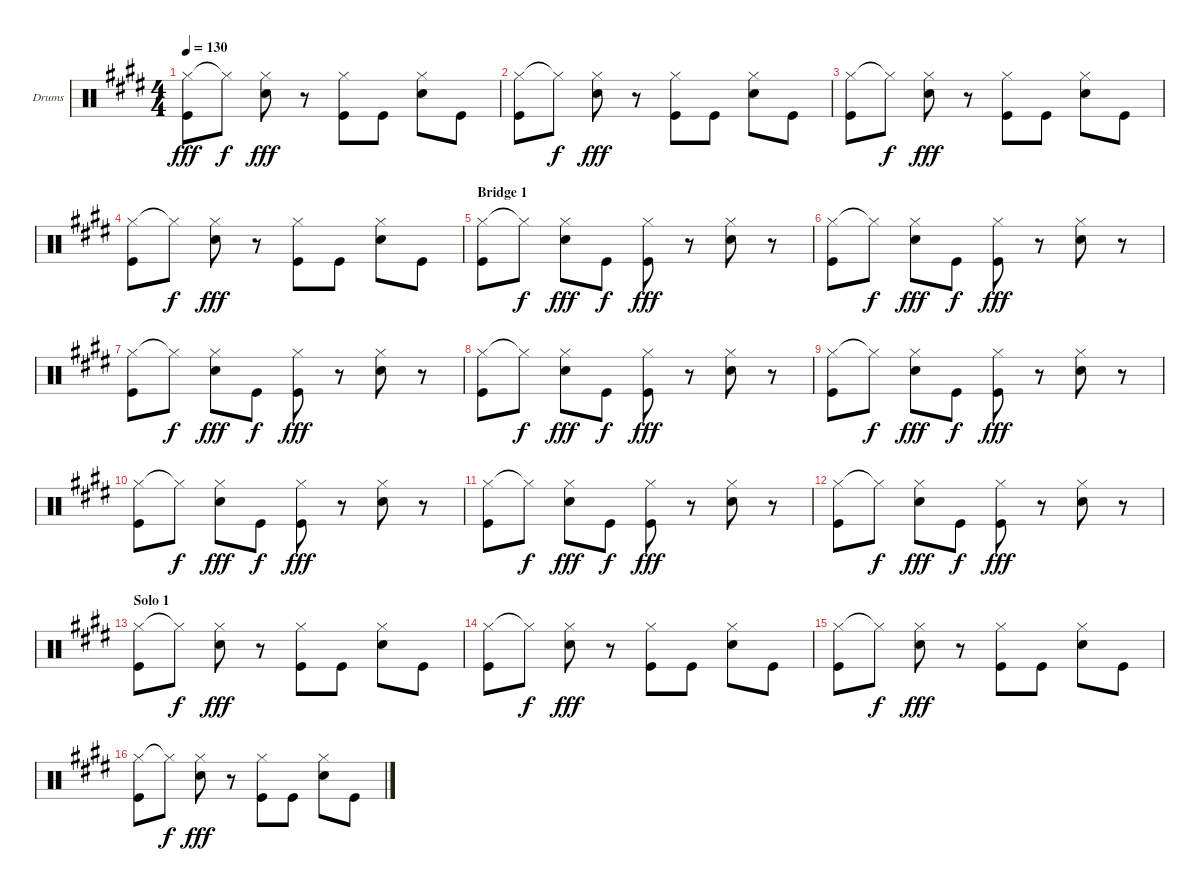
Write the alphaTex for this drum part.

\defaultSystemsLayout 4
\bracketExtendMode groupsimilarinstruments
\firstSystemTrackNameOrientation horizontal
\otherSystemsTrackNameOrientation horizontal
\chordDiagramsInScore
\track ("Drums" "Drums") {instrument percussion}
\staff {score}
\articulation defaults
\ts (4 4)
\tempo 130
\clef neutral
\scale
0.25
\ks e
("Hi-Hat (closed)" "Kick (hit)").8{dy fff} "Hi-Hat (closed)"{t}.8{dy f} ("Hi-Hat (closed)" "Snare (hit) 2").8{dy fff} r.8 ("Hi-Hat (closed)" "Kick (hit)").8 "Kick (hit)".8 ("Hi-Hat (closed)" "Snare (hit) 2").8 "Kick (hit)".8 |
\scale
0.25 ("Hi-Hat (closed)" "Kick (hit)").8 "Hi-Hat (closed)"{t}.8{dy f} ("Hi-Hat (closed)" "Snare (hit) 2").8{dy fff} r.8 ("Hi-Hat (closed)" "Kick (hit)").8 "Kick (hit)".8 ("Hi-Hat (closed)" "Snare (hit) 2").8 "Kick (hit)".8 |
\scale
0.25 ("Hi-Hat (closed)" "Kick (hit)").8 "Hi-Hat (closed)"{t}.8{dy f} ("Hi-Hat (closed)" "Snare (hit) 2").8{dy fff} r.8 ("Hi-Hat (closed)" "Kick (hit)").8 "Kick (hit)".8 ("Hi-Hat (closed)" "Snare (hit) 2").8 "Kick (hit)".8 |
\scale
0.25 ("Hi-Hat (closed)" "Kick (hit)").8 "Hi-Hat (closed)"{t}.8{dy f} ("Hi-Hat (closed)" "Snare (hit) 2").8{dy fff} r.8 ("Hi-Hat (closed)" "Kick (hit)").8 "Kick (hit)".8 ("Hi-Hat (closed)" "Snare (hit) 2").8 "Kick (hit)".8 |
\section ("" "Bridge 1")
\scale
0.25 ("Hi-Hat (closed)" "Kick (hit)").8 "Hi-Hat (closed)"{t}.8{dy f} ("Hi-Hat (closed)" "Snare (hit) 2").8{dy fff} "Kick (hit)".8{dy f} ("Hi-Hat (closed)" "Kick (hit)").8{dy fff} r.8 ("Hi-Hat (closed)" "Snare (hit) 2").8 r.8 |
\scale
0.25 ("Hi-Hat (closed)" "Kick (hit)").8 "Hi-Hat (closed)"{t}.8{dy f} ("Hi-Hat (closed)" "Snare (hit) 2").8{dy fff} "Kick (hit)".8{dy f} ("Hi-Hat (closed)" "Kick (hit)").8{dy fff} r.8 ("Hi-Hat (closed)" "Snare (hit) 2").8 r.8 |
\scale
0.25 ("Hi-Hat (closed)" "Kick (hit)").8 "Hi-Hat (closed)"{t}.8{dy f} ("Hi-Hat (closed)" "Snare (hit) 2").8{dy fff} "Kick (hit)".8{dy f} ("Hi-Hat (closed)" "Kick (hit)").8{dy fff} r.8 ("Hi-Hat (closed)" "Snare (hit) 2").8 r.8 |
\scale
0.25 ("Hi-Hat (closed)" "Kick (hit)").8 "Hi-Hat (closed)"{t}.8{dy f} ("Hi-Hat (closed)" "Snare (hit) 2").8{dy fff} "Kick (hit)".8{dy f} ("Hi-Hat (closed)" "Kick (hit)").8{dy fff} r.8 ("Hi-Hat (closed)" "Snare (hit) 2").8 r.8 |
\scale
0.25 ("Hi-Hat (closed)" "Kick (hit)").8 "Hi-Hat (closed)"{t}.8{dy f} ("Hi-Hat (closed)" "Snare (hit) 2").8{dy fff} "Kick (hit)".8{dy f} ("Hi-Hat (closed)" "Kick (hit)").8{dy fff} r.8 ("Hi-Hat (closed)" "Snare (hit) 2").8 r.8 |
\scale
0.25 ("Hi-Hat (closed)" "Kick (hit)").8 "Hi-Hat (closed)"{t}.8{dy f} ("Hi-Hat (closed)" "Snare (hit) 2").8{dy fff} "Kick (hit)".8{dy f} ("Hi-Hat (closed)" "Kick (hit)").8{dy fff} r.8 ("Hi-Hat (closed)" "Snare (hit) 2").8 r.8 |
\scale
0.25 ("Hi-Hat (closed)" "Kick (hit)").8 "Hi-Hat (closed)"{t}.8{dy f} ("Hi-Hat (closed)" "Snare (hit) 2").8{dy fff} "Kick (hit)".8{dy f} ("Hi-Hat (closed)" "Kick (hit)").8{dy fff} r.8 ("Hi-Hat (closed)" "Snare (hit) 2").8 r.8 |
\scale
0.25 ("Hi-Hat (closed)" "Kick (hit)").8 "Hi-Hat (closed)"{t}.8{dy f} ("Hi-Hat (closed)" "Snare (hit) 2").8{dy fff} "Kick (hit)".8{dy f} ("Hi-Hat (closed)" "Kick (hit)").8{dy fff} r.8 ("Hi-Hat (closed)" "Snare (hit) 2").8 r.8 |
\section ("" "Solo 1")
\scale
0.25 ("Hi-Hat (closed)" "Kick (hit)").8 "Hi-Hat (closed)"{t}.8{dy f} ("Hi-Hat (closed)" "Snare (hit) 2").8{dy fff} r.8 ("Hi-Hat (closed)" "Kick (hit)").8 "Kick (hit)".8 ("Hi-Hat (closed)" "Snare (hit) 2").8 "Kick (hit)".8 |
\scale
0.25 ("Hi-Hat (closed)" "Kick (hit)").8 "Hi-Hat (closed)"{t}.8{dy f} ("Hi-Hat (closed)" "Snare (hit) 2").8{dy fff} r.8 ("Hi-Hat (closed)" "Kick (hit)").8 "Kick (hit)".8 ("Hi-Hat (closed)" "Snare (hit) 2").8 "Kick (hit)".8 |
\scale
0.25 ("Hi-Hat (closed)" "Kick (hit)").8 "Hi-Hat (closed)"{t}.8{dy f} ("Hi-Hat (closed)" "Snare (hit) 2").8{dy fff} r.8 ("Hi-Hat (closed)" "Kick (hit)").8 "Kick (hit)".8 ("Hi-Hat (closed)" "Snare (hit) 2").8 "Kick (hit)".8 |
\scale
0.25 ("Hi-Hat (closed)" "Kick (hit)").8 "Hi-Hat (closed)"{t}.8{dy f} ("Hi-Hat (closed)" "Snare (hit) 2").8{dy fff} r.8 ("Hi-Hat (closed)" "Kick (hit)").8 "Kick (hit)".8 ("Hi-Hat (closed)" "Snare (hit) 2").8 "Kick (hit)".8
